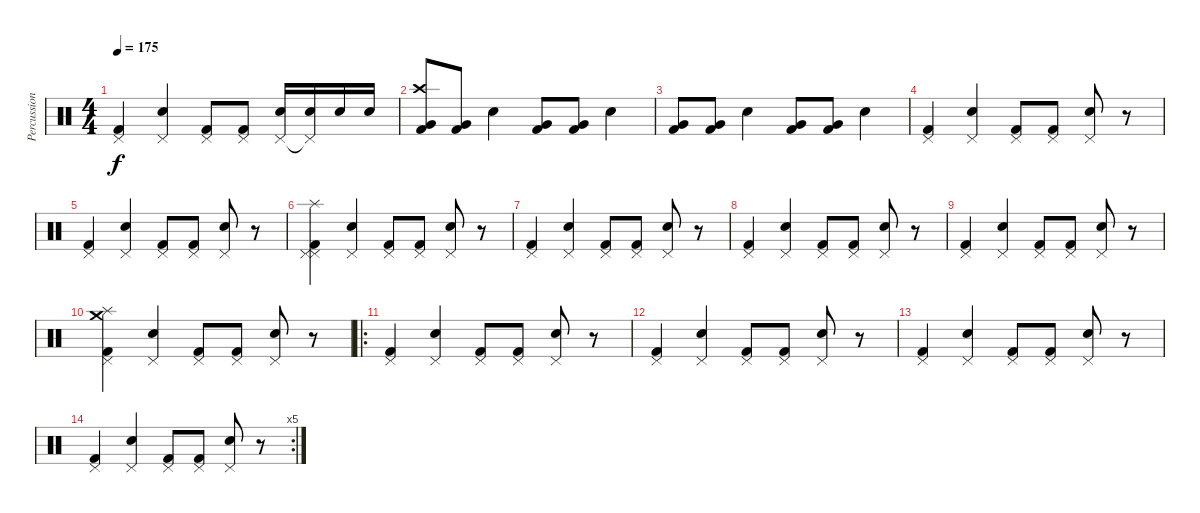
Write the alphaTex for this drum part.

\track ("Percussion" "Percussion") {instrument percussion}
\staff {score}
\articulation defaults
\ts (4 4)
\tempo 175
\clef neutral
\ks c
("Pedal Hi-Hat (hit)" "Kick (hit) 2").4{dy f} ("Pedal Hi-Hat (hit)" "Snare (hit) 2").4 ("Pedal Hi-Hat (hit)" "Kick (hit) 2").8 ("Pedal Hi-Hat (hit)" "Kick (hit) 2").8 ("Pedal Hi-Hat (hit)" "Snare (hit) 2").16 ("Pedal Hi-Hat (hit)"{t} "Snare (hit) 2").16 "Snare (hit) 2".16 "Snare (hit) 2".16 |
("Crash high (hit)" "Very Low Tom (hit)" "Kick (hit) 2").8 ("Very Low Tom (hit)" "Kick (hit) 2").8 "Snare (hit) 2".4 ("Very Low Tom (hit)" "Kick (hit) 2").8 ("Very Low Tom (hit)" "Kick (hit) 2").8 "Snare (hit) 2".4 |
("Very Low Tom (hit)" "Kick (hit) 2").8 ("Very Low Tom (hit)" "Kick (hit) 2").8 "Snare (hit) 2".4 ("Very Low Tom (hit)" "Kick (hit) 2").8 ("Very Low Tom (hit)" "Kick (hit) 2").8 "Snare (hit) 2".4 |
("Pedal Hi-Hat (hit)" "Kick (hit) 2").4 ("Pedal Hi-Hat (hit)" "Snare (hit) 2").4 ("Pedal Hi-Hat (hit)" "Kick (hit) 2").8 ("Pedal Hi-Hat (hit)" "Kick (hit) 2").8 ("Pedal Hi-Hat (hit)" "Snare (hit) 2").8 r.8 |
("Pedal Hi-Hat (hit)" "Kick (hit) 2").4 ("Pedal Hi-Hat (hit)" "Snare (hit) 2").4 ("Pedal Hi-Hat (hit)" "Kick (hit) 2").8 ("Pedal Hi-Hat (hit)" "Kick (hit) 2").8 ("Pedal Hi-Hat (hit)" "Snare (hit) 2").8 r.8 |
("Splash (hit)" "Pedal Hi-Hat (hit)" "Pedal Hi-Hat (hit)" "Kick (hit) 2").4 ("Pedal Hi-Hat (hit)" "Snare (hit) 2").4 ("Pedal Hi-Hat (hit)" "Kick (hit) 2").8 ("Pedal Hi-Hat (hit)" "Kick (hit) 2").8 ("Pedal Hi-Hat (hit)" "Snare (hit) 2").8 r.8 |
("Pedal Hi-Hat (hit)" "Kick (hit) 2").4 ("Pedal Hi-Hat (hit)" "Snare (hit) 2").4 ("Pedal Hi-Hat (hit)" "Kick (hit) 2").8 ("Pedal Hi-Hat (hit)" "Kick (hit) 2").8 ("Pedal Hi-Hat (hit)" "Snare (hit) 2").8 r.8 |
("Pedal Hi-Hat (hit)" "Kick (hit) 2").4 ("Pedal Hi-Hat (hit)" "Snare (hit) 2").4 ("Pedal Hi-Hat (hit)" "Kick (hit) 2").8 ("Pedal Hi-Hat (hit)" "Kick (hit) 2").8 ("Pedal Hi-Hat (hit)" "Snare (hit) 2").8 r.8 |
("Pedal Hi-Hat (hit)" "Kick (hit) 2").4 ("Pedal Hi-Hat (hit)" "Snare (hit) 2").4 ("Pedal Hi-Hat (hit)" "Kick (hit) 2").8 ("Pedal Hi-Hat (hit)" "Kick (hit) 2").8 ("Pedal Hi-Hat (hit)" "Snare (hit) 2").8 r.8 |
("Crash medium (hit)" "Splash (hit)" "Pedal Hi-Hat (hit)" "Kick (hit) 2").4 ("Pedal Hi-Hat (hit)" "Snare (hit) 2").4 ("Pedal Hi-Hat (hit)" "Kick (hit) 2").8 ("Pedal Hi-Hat (hit)" "Kick (hit) 2").8 ("Pedal Hi-Hat (hit)" "Snare (hit) 2").8 r.8 |
\ro
("Pedal Hi-Hat (hit)" "Kick (hit) 2").4 ("Pedal Hi-Hat (hit)" "Snare (hit) 2").4 ("Pedal Hi-Hat (hit)" "Kick (hit) 2").8 ("Pedal Hi-Hat (hit)" "Kick (hit) 2").8 ("Pedal Hi-Hat (hit)" "Snare (hit) 2").8 r.8 |
("Pedal Hi-Hat (hit)" "Kick (hit) 2").4 ("Pedal Hi-Hat (hit)" "Snare (hit) 2").4 ("Pedal Hi-Hat (hit)" "Kick (hit) 2").8 ("Pedal Hi-Hat (hit)" "Kick (hit) 2").8 ("Pedal Hi-Hat (hit)" "Snare (hit) 2").8 r.8 |
("Pedal Hi-Hat (hit)" "Kick (hit) 2").4 ("Pedal Hi-Hat (hit)" "Snare (hit) 2").4 ("Pedal Hi-Hat (hit)" "Kick (hit) 2").8 ("Pedal Hi-Hat (hit)" "Kick (hit) 2").8 ("Pedal Hi-Hat (hit)" "Snare (hit) 2").8 r.8 |
\rc 5
("Pedal Hi-Hat (hit)" "Kick (hit) 2").4 ("Pedal Hi-Hat (hit)" "Snare (hit) 2").4 ("Pedal Hi-Hat (hit)" "Kick (hit) 2").8 ("Pedal Hi-Hat (hit)" "Kick (hit) 2").8 ("Pedal Hi-Hat (hit)" "Snare (hit) 2").8 r.8
